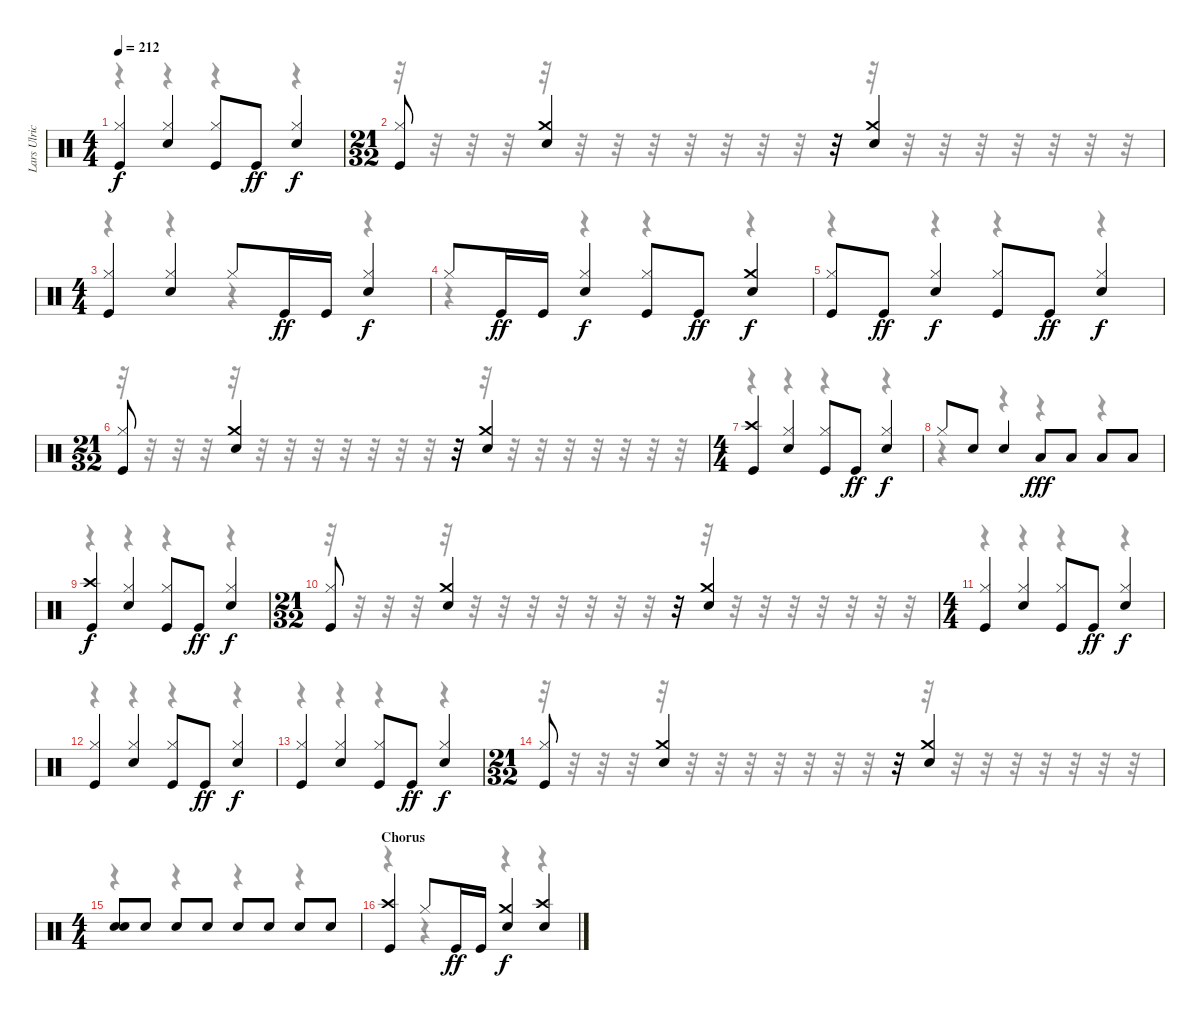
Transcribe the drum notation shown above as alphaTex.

\track ("Lars Ulrich" "Lars Ulric") {instrument percussion}
\staff {score}
\articulation defaults
\voice
\ts (4 4)
\tempo 212
\clef neutral
\ks c
("Hi-Hat (closed)" "Kick (hit)").4{dy f} ("Hi-Hat (closed)" "Snare (hit) 2").4 ("Hi-Hat (closed)" "Kick (hit)").8 "Kick (hit)".8{dy ff} ("Hi-Hat (closed)" "Snare (hit) 2").4{dy f} |
\ts (21 32)
("Hi-Hat (closed)" "Kick (hit)").8 ("Crash medium (hit)" "Snare (hit) 2").4 r.32 ("Crash medium (hit)" "Snare (hit) 2").4 |
\ts (4 4)
("Hi-Hat (closed)" "Kick (hit)").4 ("Hi-Hat (closed)" "Snare (hit) 2").4 "Hi-Hat (closed)".8 "Kick (hit)".16{dy ff} "Kick (hit)".16 ("Hi-Hat (closed)" "Snare (hit) 2").4{dy f} |
"Hi-Hat (closed)".8 "Kick (hit)".16{dy ff} "Kick (hit)".16 ("Hi-Hat (closed)" "Snare (hit) 2").4{dy f} ("Hi-Hat (closed)" "Kick (hit)").8 "Kick (hit)".8{dy ff} ("Crash medium (hit)" "Snare (hit) 2").4{dy f} |
("Hi-Hat (closed)" "Kick (hit)").8 "Kick (hit)".8{dy ff} ("Hi-Hat (closed)" "Snare (hit) 2").4{dy f} ("Hi-Hat (closed)" "Kick (hit)").8 "Kick (hit)".8{dy ff} ("Hi-Hat (closed)" "Snare (hit) 2").4{dy f} |
\ts (21 32)
("Hi-Hat (closed)" "Kick (hit)").8 ("Crash medium (hit)" "Snare (hit) 2").4 r.32 ("Crash medium (hit)" "Snare (hit) 2").4 |
\ts (4 4)
("Crash high (hit)" "Kick (hit)").4 ("Hi-Hat (closed)" "Snare (hit) 2").4 ("Hi-Hat (closed)" "Kick (hit)").8 "Kick (hit)".8{dy ff} ("Hi-Hat (closed)" "Snare (hit) 2").4{dy f} |
"Hi-Hat (closed)".8 "Snare (hit) 2".8 "Snare (hit) 2".4 "Low Tom (hit)".8{dy fff} "Low Tom (hit)".8 "Low Tom (hit)".8 "Low Tom (hit)".8 |
("Crash high (hit)" "Kick (hit)").4{dy f} ("Hi-Hat (closed)" "Snare (hit) 2").4 ("Hi-Hat (closed)" "Kick (hit)").8 "Kick (hit)".8{dy ff} ("Hi-Hat (closed)" "Snare (hit) 2").4{dy f} |
\ts (21 32)
("Hi-Hat (closed)" "Kick (hit)").8 ("Crash medium (hit)" "Snare (hit) 2").4 r.32 ("Crash medium (hit)" "Snare (hit) 2").4 |
\ts (4 4)
("Hi-Hat (closed)" "Kick (hit)").4 ("Hi-Hat (closed)" "Snare (hit) 2").4 ("Hi-Hat (closed)" "Kick (hit)").8 "Kick (hit)".8{dy ff} ("Hi-Hat (closed)" "Snare (hit) 2").4{dy f} |
("Hi-Hat (closed)" "Kick (hit)").4 ("Hi-Hat (closed)" "Snare (hit) 2").4 ("Hi-Hat (closed)" "Kick (hit)").8 "Kick (hit)".8{dy ff} ("Hi-Hat (closed)" "Snare (hit) 2").4{dy f} |
("Hi-Hat (closed)" "Kick (hit)").4 ("Hi-Hat (closed)" "Snare (hit) 2").4 ("Hi-Hat (closed)" "Kick (hit)").8 "Kick (hit)".8{dy ff} ("Hi-Hat (closed)" "Snare (hit) 2").4{dy f} |
\ts (21 32)
("Hi-Hat (closed)" "Kick (hit)").8 ("Crash medium (hit)" "Snare (hit) 2").4 r.32 ("Crash medium (hit)" "Snare (hit) 2").4 |
\ts (4 4)
("Snare (hit) 2" "Snare (hit) 2").8 "Snare (hit) 2".8 "Snare (hit) 2".8 "Snare (hit) 2".8 "Snare (hit) 2".8 "Snare (hit) 2".8 "Snare (hit) 2".8 "Snare (hit) 2".8 |
\section ("" "Chorus")
("Crash high (hit)" "Kick (hit)").4 "Hi-Hat (closed)".8 "Kick (hit)".16{dy ff} "Kick (hit)".16 ("Crash medium (hit)" "Snare (hit) 2").4{dy f} ("Crash high (hit)" "Snare (hit) 2").4
\voice
\clef neutral
\ottava regular
\simile none
\ks c
r.4{dy f} r.4 r.4 r.4 |
r.32 r.32 r.32 r.32 r.32 r.32 r.32 r.32 r.32 r.32 r.32 r.32 r.32 r.32 r.32 r.32 r.32 r.32 r.32 r.32 r.32 |
r.4 r.4 r.4 r.4 |
r.4 r.4 r.4 r.4 |
r.4 r.4 r.4 r.4 |
r.32 r.32 r.32 r.32 r.32 r.32 r.32 r.32 r.32 r.32 r.32 r.32 r.32 r.32 r.32 r.32 r.32 r.32 r.32 r.32 r.32 |
r.4 r.4 r.4 r.4 |
r.4 r.4 r.4 r.4 |
r.4 r.4 r.4 r.4 |
r.32 r.32 r.32 r.32 r.32 r.32 r.32 r.32 r.32 r.32 r.32 r.32 r.32 r.32 r.32 r.32 r.32 r.32 r.32 r.32 r.32 |
r.4 r.4 r.4 r.4 |
r.4 r.4 r.4 r.4 |
r.4 r.4 r.4 r.4 |
r.32 r.32 r.32 r.32 r.32 r.32 r.32 r.32 r.32 r.32 r.32 r.32 r.32 r.32 r.32 r.32 r.32 r.32 r.32 r.32 r.32 |
r.4 r.4 r.4 r.4 |
r.4 r.4 r.4 r.4
